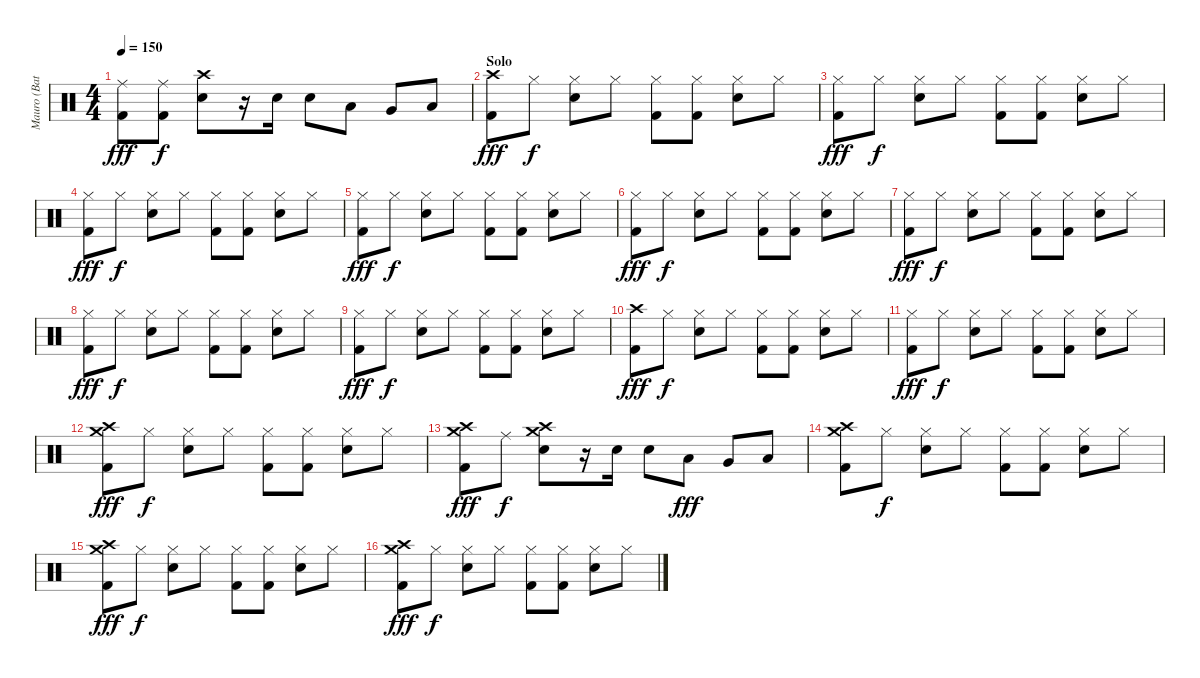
\track ("Mauro (Bateria)" "Mauro (Bat") {instrument percussion}
\staff {score}
\articulation defaults
\ts (4 4)
\tempo 150
\clef neutral
\ks c
("Ride (middle)" "Kick (hit) 2").8{dy fff} ("Ride (middle)" "Kick (hit) 2").8{dy f} ("Crash high (hit)" "Snare (hit) 2").8 r.16 "Snare (hit) 2".16 "Snare (hit) 2".8 "Low Tom (hit)".8 "Very Low Tom (hit)".8 "Low Floor Tom (hit)".8 |
\section ("" "Solo")
("Crash high (hit)" "Kick (hit) 2").8{dy fff} "Hi-Hat (closed)".8{dy f} ("Hi-Hat (closed)" "Snare (hit) 2").8 "Hi-Hat (closed)".8 ("Hi-Hat (closed)" "Kick (hit) 2").8 ("Hi-Hat (closed)" "Kick (hit) 2").8 ("Hi-Hat (closed)" "Snare (hit) 2").8 "Hi-Hat (closed)".8 |
("Hi-Hat (closed)" "Kick (hit) 2").8{dy fff} "Hi-Hat (closed)".8{dy f} ("Hi-Hat (closed)" "Snare (hit) 2").8 "Hi-Hat (closed)".8 ("Hi-Hat (closed)" "Kick (hit) 2").8 ("Hi-Hat (closed)" "Kick (hit) 2").8 ("Hi-Hat (closed)" "Snare (hit) 2").8 "Hi-Hat (closed)".8 |
("Hi-Hat (closed)" "Kick (hit) 2").8{dy fff} "Hi-Hat (closed)".8{dy f} ("Hi-Hat (closed)" "Snare (hit) 2").8 "Hi-Hat (closed)".8 ("Hi-Hat (closed)" "Kick (hit) 2").8 ("Hi-Hat (closed)" "Kick (hit) 2").8 ("Hi-Hat (closed)" "Snare (hit) 2").8 "Hi-Hat (closed)".8 |
("Hi-Hat (closed)" "Kick (hit) 2").8{dy fff} "Hi-Hat (closed)".8{dy f} ("Hi-Hat (closed)" "Snare (hit) 2").8 "Hi-Hat (closed)".8 ("Hi-Hat (closed)" "Kick (hit) 2").8 ("Hi-Hat (closed)" "Kick (hit) 2").8 ("Hi-Hat (closed)" "Snare (hit) 2").8 "Hi-Hat (closed)".8 |
("Hi-Hat (closed)" "Kick (hit) 2").8{dy fff} "Hi-Hat (closed)".8{dy f} ("Hi-Hat (closed)" "Snare (hit) 2").8 "Hi-Hat (closed)".8 ("Hi-Hat (closed)" "Kick (hit) 2").8 ("Hi-Hat (closed)" "Kick (hit) 2").8 ("Hi-Hat (closed)" "Snare (hit) 2").8 "Hi-Hat (closed)".8 |
("Hi-Hat (closed)" "Kick (hit) 2").8{dy fff} "Hi-Hat (closed)".8{dy f} ("Hi-Hat (closed)" "Snare (hit) 2").8 "Hi-Hat (closed)".8 ("Hi-Hat (closed)" "Kick (hit) 2").8 ("Hi-Hat (closed)" "Kick (hit) 2").8 ("Hi-Hat (closed)" "Snare (hit) 2").8 "Hi-Hat (closed)".8 |
("Hi-Hat (closed)" "Kick (hit) 2").8{dy fff} "Hi-Hat (closed)".8{dy f} ("Hi-Hat (closed)" "Snare (hit) 2").8 "Hi-Hat (closed)".8 ("Hi-Hat (closed)" "Kick (hit) 2").8 ("Hi-Hat (closed)" "Kick (hit) 2").8 ("Hi-Hat (closed)" "Snare (hit) 2").8 "Hi-Hat (closed)".8 |
("Hi-Hat (closed)" "Kick (hit) 2").8{dy fff} "Hi-Hat (closed)".8{dy f} ("Hi-Hat (closed)" "Snare (hit) 2").8 "Hi-Hat (closed)".8 ("Hi-Hat (closed)" "Kick (hit) 2").8 ("Hi-Hat (closed)" "Kick (hit) 2").8 ("Hi-Hat (closed)" "Snare (hit) 2").8 "Hi-Hat (closed)".8 |
("Crash high (hit)" "Kick (hit) 2").8{dy fff} "Hi-Hat (closed)".8{dy f} ("Hi-Hat (closed)" "Snare (hit) 2").8 "Hi-Hat (closed)".8 ("Hi-Hat (closed)" "Kick (hit) 2").8 ("Hi-Hat (closed)" "Kick (hit) 2").8 ("Hi-Hat (closed)" "Snare (hit) 2").8 "Hi-Hat (closed)".8 |
("Hi-Hat (closed)" "Kick (hit) 2").8{dy fff} "Hi-Hat (closed)".8{dy f} ("Hi-Hat (closed)" "Snare (hit) 2").8 "Hi-Hat (closed)".8 ("Hi-Hat (closed)" "Kick (hit) 2").8 ("Hi-Hat (closed)" "Kick (hit) 2").8 ("Hi-Hat (closed)" "Snare (hit) 2").8 "Hi-Hat (closed)".8 |
("Crash high (hit)" "Crash medium (hit)" "Kick (hit) 2").8{dy fff} "Hi-Hat (closed)".8{dy f} ("Hi-Hat (closed)" "Snare (hit) 2").8 "Hi-Hat (closed)".8 ("Hi-Hat (closed)" "Kick (hit) 2").8 ("Hi-Hat (closed)" "Kick (hit) 2").8 ("Hi-Hat (closed)" "Snare (hit) 2").8 "Hi-Hat (closed)".8 |
("Crash high (hit)" "Crash medium (hit)" "Kick (hit) 2").8{dy fff} "Ride (middle)".8{dy f} ("Crash high (hit)" "Snare (hit) 2" "Crash medium (hit)").8 r.16 "Snare (hit) 2".16 "Snare (hit) 2".8 "Low Tom (hit)".8{dy fff} "Very Low Tom (hit)".8 "Low Floor Tom (hit)".8 |
("Crash high (hit)" "Crash medium (hit)" "Kick (hit) 2").8 "Hi-Hat (closed)".8{dy f} ("Hi-Hat (closed)" "Snare (hit) 2").8 "Hi-Hat (closed)".8 ("Hi-Hat (closed)" "Kick (hit) 2").8 ("Hi-Hat (closed)" "Kick (hit) 2").8 ("Hi-Hat (closed)" "Snare (hit) 2").8 "Hi-Hat (closed)".8 |
("Crash high (hit)" "Crash medium (hit)" "Kick (hit) 2").8{dy fff} "Hi-Hat (closed)".8{dy f} ("Hi-Hat (closed)" "Snare (hit) 2").8 "Hi-Hat (closed)".8 ("Hi-Hat (closed)" "Kick (hit) 2").8 ("Hi-Hat (closed)" "Kick (hit) 2").8 ("Hi-Hat (closed)" "Snare (hit) 2").8 "Hi-Hat (closed)".8 |
("Crash high (hit)" "Crash medium (hit)" "Kick (hit) 2").8{dy fff} "Hi-Hat (closed)".8{dy f} ("Hi-Hat (closed)" "Snare (hit) 2").8 "Hi-Hat (closed)".8 ("Hi-Hat (closed)" "Kick (hit) 2").8 ("Hi-Hat (closed)" "Kick (hit) 2").8 ("Hi-Hat (closed)" "Snare (hit) 2").8 "Hi-Hat (closed)".8
